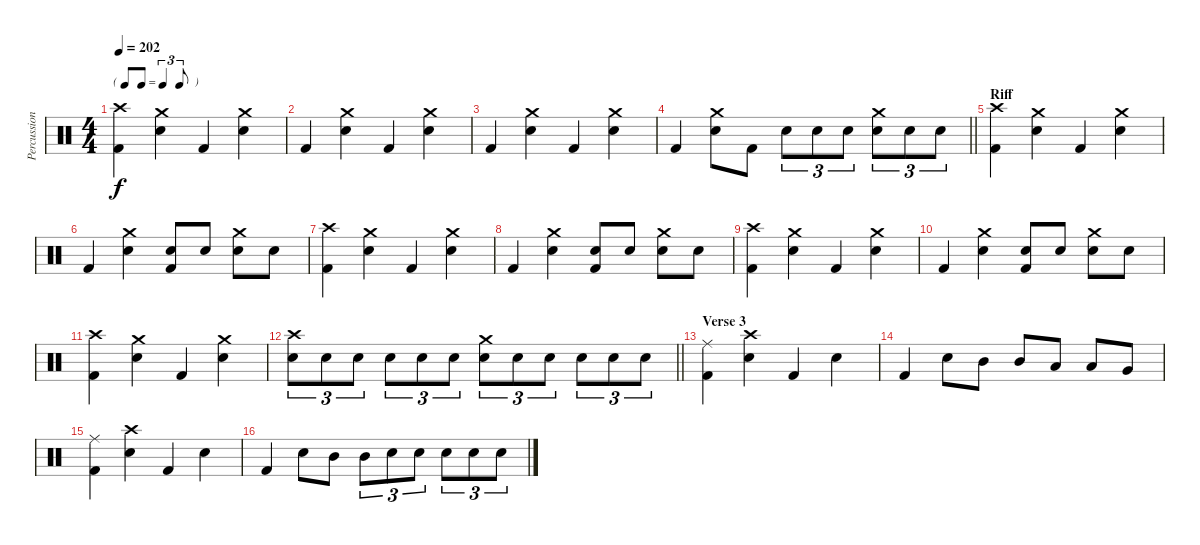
\track ("Percussion" "Percussion") {instrument percussion}
\staff {score}
\articulation defaults
\ts (4 4)
\tf triplet8th
\tempo 202
\clef neutral
\ks c
("Crash high (hit)" "Kick (hit) 2").4{dy f} ("Crash medium (hit)" "Electric Snare (hit)").4 "Kick (hit) 2".4 ("Crash medium (hit)" "Electric Snare (hit)").4 |
"Kick (hit) 2".4 ("Crash medium (hit)" "Electric Snare (hit)").4 "Kick (hit) 2".4 ("Crash medium (hit)" "Electric Snare (hit)").4 |
"Kick (hit) 2".4 ("Crash medium (hit)" "Electric Snare (hit)").4 "Kick (hit) 2".4 ("Crash medium (hit)" "Electric Snare (hit)").4 |
\barLineRight lightlight "Kick (hit) 2".4
("Crash medium (hit)" "Electric Snare (hit)").8 "Kick (hit) 2".8 "Electric Snare (hit)".8{tu (3 2)} "Electric Snare (hit)".8{tu (3 2)} "Electric Snare (hit)".8{tu (3 2)} ("Crash medium (hit)" "Electric Snare (hit)").8{tu (3 2)} "Electric Snare (hit)".8{tu (3 2)} "Electric Snare (hit)".8{tu (3 2)} |
\section ("" "Riff")
("Crash high (hit)" "Kick (hit) 2").4 ("Crash medium (hit)" "Electric Snare (hit)").4 "Kick (hit) 2".4 ("Crash medium (hit)" "Electric Snare (hit)").4 |
"Kick (hit) 2".4 ("Crash medium (hit)" "Electric Snare (hit)").4 ("Electric Snare (hit)" "Kick (hit) 2").8 "Electric Snare (hit)".8 ("Crash medium (hit)" "Electric Snare (hit)").8 "Electric Snare (hit)".8 |
("Crash high (hit)" "Kick (hit) 2").4 ("Crash medium (hit)" "Electric Snare (hit)").4 "Kick (hit) 2".4 ("Crash medium (hit)" "Electric Snare (hit)").4 |
"Kick (hit) 2".4 ("Crash medium (hit)" "Electric Snare (hit)").4 ("Electric Snare (hit)" "Kick (hit) 2").8 "Electric Snare (hit)".8 ("Crash medium (hit)" "Electric Snare (hit)").8 "Electric Snare (hit)".8 |
("Crash high (hit)" "Kick (hit) 2").4 ("Crash medium (hit)" "Electric Snare (hit)").4 "Kick (hit) 2".4 ("Crash medium (hit)" "Electric Snare (hit)").4 |
"Kick (hit) 2".4 ("Crash medium (hit)" "Electric Snare (hit)").4 ("Electric Snare (hit)" "Kick (hit) 2").8 "Electric Snare (hit)".8 ("Crash medium (hit)" "Electric Snare (hit)").8 "Electric Snare (hit)".8 |
("Crash high (hit)" "Kick (hit) 2").4 ("Crash medium (hit)" "Electric Snare (hit)").4 "Kick (hit) 2".4 ("Crash medium (hit)" "Electric Snare (hit)").4 |
\barLineRight lightlight
("Crash high (hit)" "Electric Snare (hit)").8{tu (3 2)} "Electric Snare (hit)".8{tu (3 2)} "Electric Snare (hit)".8{tu (3 2)} "Electric Snare (hit)".8{tu (3 2)} "Electric Snare (hit)".8{tu (3 2)} "Electric Snare (hit)".8{tu (3 2)} ("Crash medium (hit)" "Electric Snare (hit)").8{tu (3 2)} "Electric Snare (hit)".8{tu (3 2)} "Electric Snare (hit)".8{tu (3 2)} "Electric Snare (hit)".8{tu (3 2)} "Electric Snare (hit)".8{tu (3 2)} "Electric Snare (hit)".8{tu (3 2)} |
\section ("" "Verse 3")
("Ride (middle)" "Kick (hit) 2").4 ("Crash high (hit)" "Electric Snare (hit)").4 "Kick (hit) 2".4 "Electric Snare (hit)".4 |
"Kick (hit) 2".4 "Electric Snare (hit)".8 "Mid Tom (hit)".8 "Mid Tom (hit)".8 "Low Tom (hit)".8 "Low Tom (hit)".8 "Very Low Tom (hit)".8 |
("Ride (middle)" "Kick (hit) 2").4 ("Crash high (hit)" "Electric Snare (hit)").4 "Kick (hit) 2".4 "Electric Snare (hit)".4 |
"Kick (hit) 2".4 "Electric Snare (hit)".8 "Mid Tom (hit)".8 "Mid Tom (hit)".8{tu (3 2)} "Electric Snare (hit)".8{tu (3 2)} "Electric Snare (hit)".8{tu (3 2)} "Electric Snare (hit)".8{tu (3 2)} "Electric Snare (hit)".8{tu (3 2)} "Electric Snare (hit)".8{tu (3 2)}
